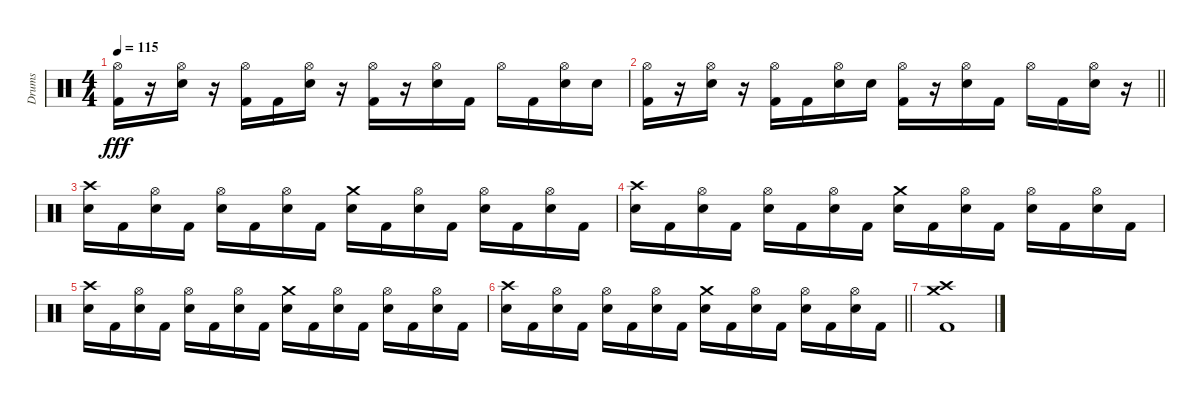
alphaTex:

\track ("Drums" "Drums") {instrument percussion}
\staff {score}
\articulation defaults
\ts (4 4)
\tempo 115
\clef neutral
\ks c
("Hi-Hat (open)" "Kick (hit) 2").16{dy fff} r.16 ("Hi-Hat (open)" "Snare (hit) 2").16 r.16 ("Hi-Hat (open)" "Kick (hit) 2").16 "Kick (hit) 2".16 ("Hi-Hat (open)" "Snare (hit) 2").16 r.16 ("Hi-Hat (open)" "Kick (hit) 2").16 r.16 ("Hi-Hat (open)" "Snare (hit) 2").16 "Kick (hit) 2".16 "Hi-Hat (open)".16 "Kick (hit) 2".16 ("Hi-Hat (open)" "Snare (hit) 2").16 "Snare (hit) 2".16 |
\barLineRight lightlight
("Hi-Hat (open)" "Kick (hit) 2").16 r.16 ("Hi-Hat (open)" "Snare (hit) 2").16 r.16 ("Hi-Hat (open)" "Kick (hit) 2").16 "Kick (hit) 2".16 ("Hi-Hat (open)" "Snare (hit) 2").16 "Snare (hit) 2".16 ("Hi-Hat (open)" "Kick (hit) 2").16 r.16 ("Hi-Hat (open)" "Snare (hit) 2").16 "Kick (hit) 2".16 "Hi-Hat (open)".16 "Kick (hit) 2".16 ("Hi-Hat (open)" "Snare (hit) 2").16 r.16 |
("Crash high (hit)" "Snare (hit) 2").16 "Kick (hit) 2".16 ("Hi-Hat (open)" "Snare (hit) 2").16 "Kick (hit) 2".16 ("Hi-Hat (open)" "Snare (hit) 2").16 "Kick (hit) 2".16 ("Hi-Hat (open)" "Snare (hit) 2").16 "Kick (hit) 2".16 ("Crash medium (hit)" "Snare (hit) 2").16 "Kick (hit) 2".16 ("Hi-Hat (open)" "Snare (hit) 2").16 "Kick (hit) 2".16 ("Hi-Hat (open)" "Snare (hit) 2").16 "Kick (hit) 2".16 ("Hi-Hat (open)" "Snare (hit) 2").16 "Kick (hit) 2".16 |
("Crash high (hit)" "Snare (hit) 2").16 "Kick (hit) 2".16 ("Hi-Hat (open)" "Snare (hit) 2").16 "Kick (hit) 2".16 ("Hi-Hat (open)" "Snare (hit) 2").16 "Kick (hit) 2".16 ("Hi-Hat (open)" "Snare (hit) 2").16 "Kick (hit) 2".16 ("Crash medium (hit)" "Snare (hit) 2").16 "Kick (hit) 2".16 ("Hi-Hat (open)" "Snare (hit) 2").16 "Kick (hit) 2".16 ("Hi-Hat (open)" "Snare (hit) 2").16 "Kick (hit) 2".16 ("Hi-Hat (open)" "Snare (hit) 2").16 "Kick (hit) 2".16 |
("Crash high (hit)" "Snare (hit) 2").16 "Kick (hit) 2".16 ("Hi-Hat (open)" "Snare (hit) 2").16 "Kick (hit) 2".16 ("Hi-Hat (open)" "Snare (hit) 2").16 "Kick (hit) 2".16 ("Hi-Hat (open)" "Snare (hit) 2").16 "Kick (hit) 2".16 ("Crash medium (hit)" "Snare (hit) 2").16 "Kick (hit) 2".16 ("Hi-Hat (open)" "Snare (hit) 2").16 "Kick (hit) 2".16 ("Hi-Hat (open)" "Snare (hit) 2").16 "Kick (hit) 2".16 ("Hi-Hat (open)" "Snare (hit) 2").16 "Kick (hit) 2".16 |
\barLineRight lightlight
("Crash high (hit)" "Snare (hit) 2").16 "Kick (hit) 2".16 ("Hi-Hat (open)" "Snare (hit) 2").16 "Kick (hit) 2".16 ("Hi-Hat (open)" "Snare (hit) 2").16 "Kick (hit) 2".16 ("Hi-Hat (open)" "Snare (hit) 2").16 "Kick (hit) 2".16 ("Crash medium (hit)" "Snare (hit) 2").16 "Kick (hit) 2".16 ("Hi-Hat (open)" "Snare (hit) 2").16 "Kick (hit) 2".16 ("Hi-Hat (open)" "Snare (hit) 2").16 "Kick (hit) 2".16 ("Hi-Hat (open)" "Snare (hit) 2").16 "Kick (hit) 2".16 |
("Crash medium (hit)" "Crash high (hit)" "Kick (hit) 2").1
